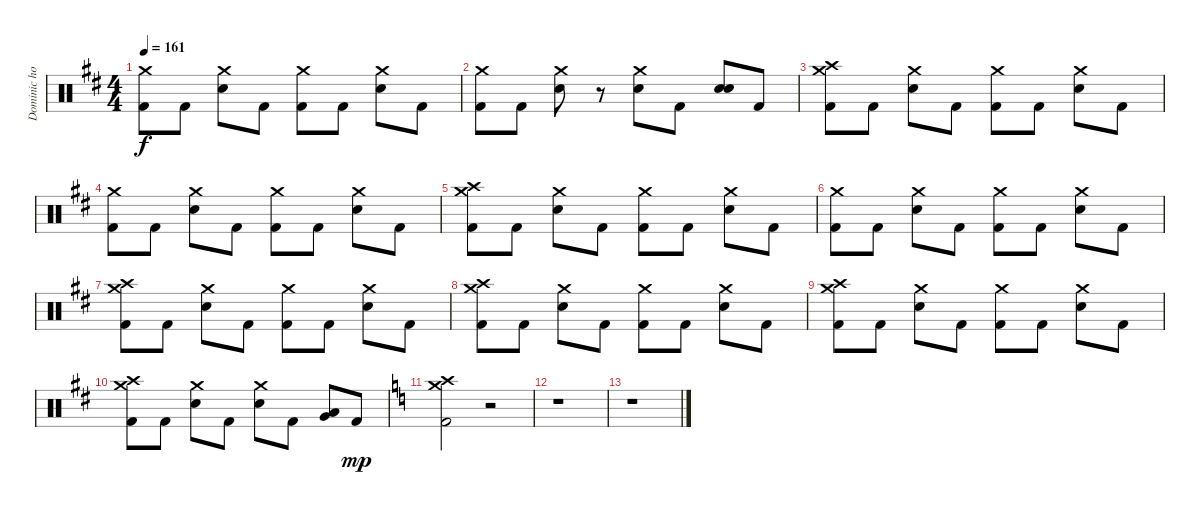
\track ("Dominic howard" "Dominic ho") {instrument percussion}
\staff {score}
\articulation defaults
\ts (4 4)
\tempo 161
\clef neutral
\ks d
("Crash medium (hit)" "Kick (hit) 2").8{dy f} "Kick (hit) 2".8 ("Crash medium (hit)" "Electric Snare (hit)").8 "Kick (hit) 2".8 ("Crash medium (hit)" "Kick (hit) 2").8 "Kick (hit) 2".8 ("Crash medium (hit)" "Electric Snare (hit)").8 "Kick (hit) 2".8 |
("Crash medium (hit)" "Kick (hit) 2").8 "Kick (hit) 2".8 ("Crash medium (hit)" "Electric Snare (hit)").8 r.8 ("Crash medium (hit)" "Electric Snare (hit)").8 "Kick (hit) 2".8 ("Electric Snare (hit)" "Electric Snare (hit)").8 "Kick (hit) 2".8 |
("Crash high (hit)" "Crash medium (hit)" "Kick (hit) 2").8 "Kick (hit) 2".8 ("Crash medium (hit)" "Electric Snare (hit)").8 "Kick (hit) 2".8 ("Crash medium (hit)" "Kick (hit) 2").8 "Kick (hit) 2".8 ("Crash medium (hit)" "Electric Snare (hit)").8 "Kick (hit) 2".8 |
("Crash medium (hit)" "Kick (hit) 2").8 "Kick (hit) 2".8 ("Crash medium (hit)" "Electric Snare (hit)").8 "Kick (hit) 2".8 ("Crash medium (hit)" "Kick (hit) 2").8 "Kick (hit) 2".8 ("Crash medium (hit)" "Electric Snare (hit)").8 "Kick (hit) 2".8 |
("Crash high (hit)" "Crash medium (hit)" "Kick (hit) 2").8 "Kick (hit) 2".8 ("Crash medium (hit)" "Electric Snare (hit)").8 "Kick (hit) 2".8 ("Crash medium (hit)" "Kick (hit) 2").8 "Kick (hit) 2".8 ("Crash medium (hit)" "Electric Snare (hit)").8 "Kick (hit) 2".8 |
("Crash medium (hit)" "Kick (hit) 2").8 "Kick (hit) 2".8 ("Crash medium (hit)" "Electric Snare (hit)").8 "Kick (hit) 2".8 ("Crash medium (hit)" "Kick (hit) 2").8 "Kick (hit) 2".8 ("Crash medium (hit)" "Electric Snare (hit)").8 "Kick (hit) 2".8 |
("Crash high (hit)" "Crash medium (hit)" "Kick (hit) 2").8 "Kick (hit) 2".8 ("Crash medium (hit)" "Electric Snare (hit)").8 "Kick (hit) 2".8 ("Crash medium (hit)" "Kick (hit) 2").8 "Kick (hit) 2".8 ("Crash medium (hit)" "Electric Snare (hit)").8 "Kick (hit) 2".8 |
("Crash high (hit)" "Crash medium (hit)" "Kick (hit) 2").8 "Kick (hit) 2".8 ("Crash medium (hit)" "Electric Snare (hit)").8 "Kick (hit) 2".8 ("Crash medium (hit)" "Kick (hit) 2").8 "Kick (hit) 2".8 ("Crash medium (hit)" "Electric Snare (hit)").8 "Kick (hit) 2".8 |
("Crash high (hit)" "Crash medium (hit)" "Kick (hit) 2").8 "Kick (hit) 2".8 ("Crash medium (hit)" "Electric Snare (hit)").8 "Kick (hit) 2".8 ("Crash medium (hit)" "Kick (hit) 2").8 "Kick (hit) 2".8 ("Crash medium (hit)" "Electric Snare (hit)").8 "Kick (hit) 2".8 |
("Crash medium (hit)" "Crash high (hit)" "Kick (hit) 2").8 "Kick (hit) 2".8 ("Crash medium (hit)" "Electric Snare (hit)").8 "Kick (hit) 2".8 ("Crash medium (hit)" "Electric Snare (hit)").8 "Kick (hit) 2".8 ("Very Low Tom (hit)" "Low Floor Tom (hit)").8 "Kick (hit) 2".8{dy mp} |
\ks c
("Crash medium (hit)" "Crash high (hit)" "Kick (hit) 2").2 r.2 |
r.1 |
r.1
